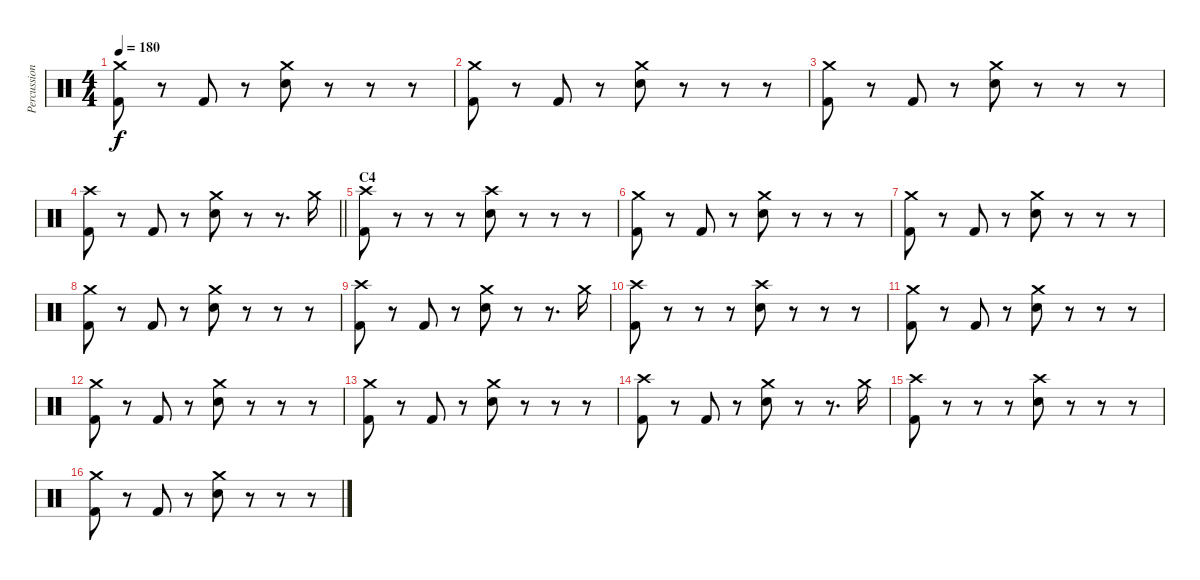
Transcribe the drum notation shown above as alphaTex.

\track ("Percussion" "Percussion") {instrument percussion}
\staff {score}
\articulation defaults
\ts (4 4)
\tempo 180
\clef neutral
\ks c
("Crash medium (hit)" "Kick (hit) 2").8{dy f} r.8 "Kick (hit) 2".8 r.8 ("Crash medium (hit)" "Snare (hit) 2").8 r.8 r.8 r.8 |
("Crash medium (hit)" "Kick (hit) 2").8 r.8 "Kick (hit) 2".8 r.8 ("Crash medium (hit)" "Snare (hit) 2").8 r.8 r.8 r.8 |
("Crash medium (hit)" "Kick (hit) 2").8 r.8 "Kick (hit) 2".8 r.8 ("Crash medium (hit)" "Snare (hit) 2").8 r.8 r.8 r.8 |
\barLineRight lightlight
("Crash high (hit)" "Kick (hit) 2").8 r.8 "Kick (hit) 2".8 r.8 ("Crash medium (hit)" "Snare (hit) 2").8 r.8 r.8{d} "Crash medium (hit)".16 |
\section ("" "C4")
("Crash high (hit)" "Kick (hit) 2").8 r.8 r.8 r.8 ("Crash high (hit)" "Snare (hit) 2").8 r.8 r.8 r.8 |
("Crash medium (hit)" "Kick (hit) 2").8 r.8 "Kick (hit) 2".8 r.8 ("Crash medium (hit)" "Snare (hit) 2").8 r.8 r.8 r.8 |
("Crash medium (hit)" "Kick (hit) 2").8 r.8 "Kick (hit) 2".8 r.8 ("Crash medium (hit)" "Snare (hit) 2").8 r.8 r.8 r.8 |
("Crash medium (hit)" "Kick (hit) 2").8 r.8 "Kick (hit) 2".8 r.8 ("Crash medium (hit)" "Snare (hit) 2").8 r.8 r.8 r.8 |
("Crash high (hit)" "Kick (hit) 2").8 r.8 "Kick (hit) 2".8 r.8 ("Crash medium (hit)" "Snare (hit) 2").8 r.8 r.8{d} "Crash medium (hit)".16 |
("Crash high (hit)" "Kick (hit) 2").8 r.8 r.8 r.8 ("Crash high (hit)" "Snare (hit) 2").8 r.8 r.8 r.8 |
("Crash medium (hit)" "Kick (hit) 2").8 r.8 "Kick (hit) 2".8 r.8 ("Crash medium (hit)" "Snare (hit) 2").8 r.8 r.8 r.8 |
("Crash medium (hit)" "Kick (hit) 2").8 r.8 "Kick (hit) 2".8 r.8 ("Crash medium (hit)" "Snare (hit) 2").8 r.8 r.8 r.8 |
("Crash medium (hit)" "Kick (hit) 2").8 r.8 "Kick (hit) 2".8 r.8 ("Crash medium (hit)" "Snare (hit) 2").8 r.8 r.8 r.8 |
("Crash high (hit)" "Kick (hit) 2").8 r.8 "Kick (hit) 2".8 r.8 ("Crash medium (hit)" "Snare (hit) 2").8 r.8 r.8{d} "Crash medium (hit)".16 |
("Crash high (hit)" "Kick (hit) 2").8 r.8 r.8 r.8 ("Crash high (hit)" "Snare (hit) 2").8 r.8 r.8 r.8 |
("Crash medium (hit)" "Kick (hit) 2").8 r.8 "Kick (hit) 2".8 r.8 ("Crash medium (hit)" "Snare (hit) 2").8 r.8 r.8 r.8
